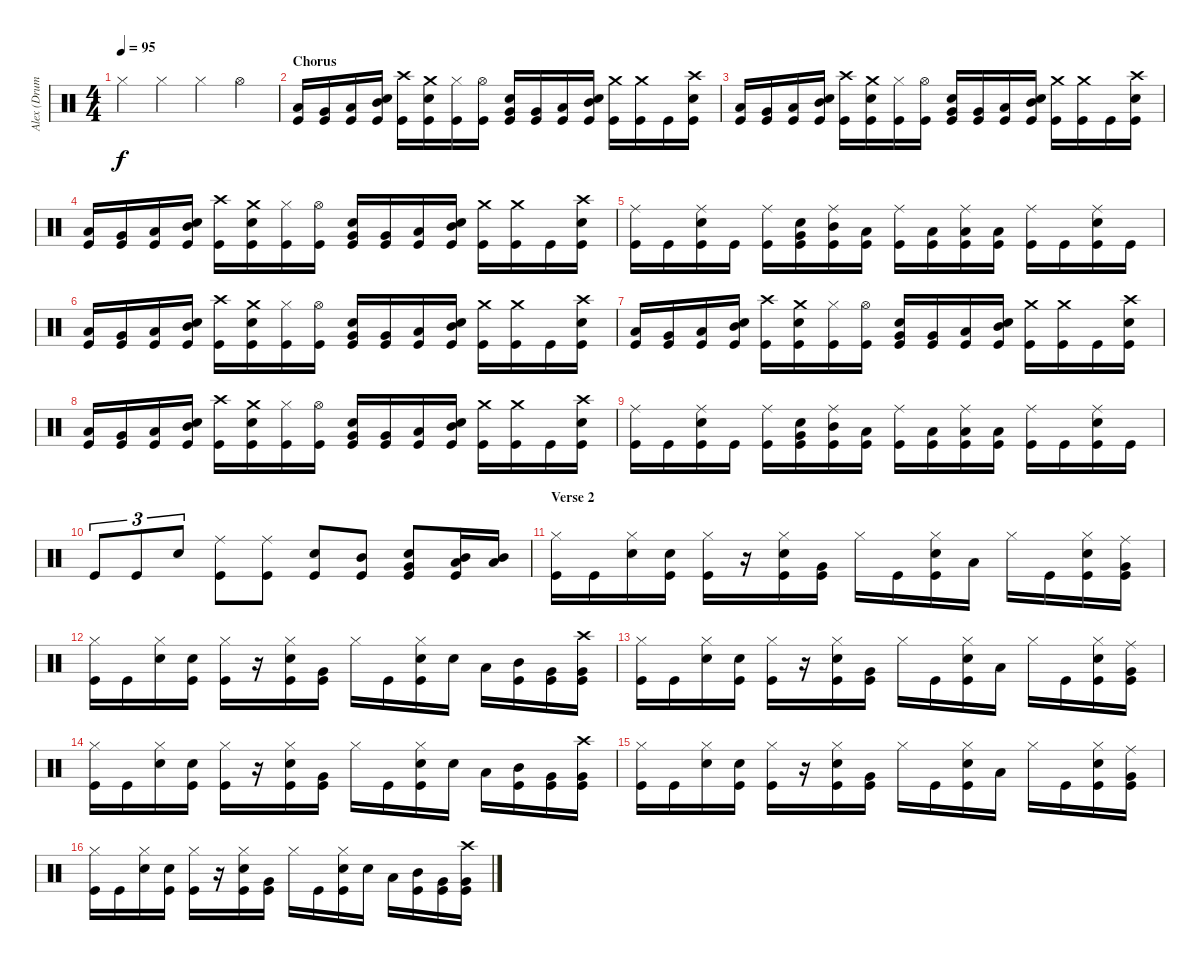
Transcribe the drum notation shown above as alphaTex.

\track ("Alex (Drums)" "Alex (Drum") {instrument percussion}
\staff {score}
\articulation defaults
\ts (4 4)
\tempo 95
\clef neutral
\ks c "Hi-Hat (closed)".4{dy f} "Hi-Hat (closed)".4 "Hi-Hat (closed)".4 "Hi-Hat (open)".4
|
\section ("" "Chorus")
("Low Tom (hit)" "Kick (hit)").16 ("Very Low Tom (hit)" "Kick (hit)").16 ("Low Floor Tom (hit)" "Kick (hit)").16 ("Mid Tom (hit)" "Electric Snare (hit)" "Kick (hit)").16 ("Crash high (hit)" "Kick (hit)").16 ("Crash medium (hit)" "Electric Snare (hit)" "Kick (hit)").16 ("Hi-Hat (closed)" "Kick (hit)").16 ("Hi-Hat (open)" "Kick (hit)").16 ("Very Low Tom (hit)" "Electric Snare (hit)" "Kick (hit)").16 ("Very Low Tom (hit)" "Kick (hit)").16 ("Low Tom (hit)" "Kick (hit)").16 ("Mid Tom (hit)" "Electric Snare (hit)" "Kick (hit)").16 ("Crash medium (hit)" "Kick (hit)").16 ("Crash medium (hit)" "Kick (hit)").16 "Kick (hit)".16 ("Crash high (hit)" "Electric Snare (hit)" "Kick (hit)").16 |
("Low Tom (hit)" "Kick (hit)").16 ("Very Low Tom (hit)" "Kick (hit)").16 ("Low Floor Tom (hit)" "Kick (hit)").16 ("Mid Tom (hit)" "Electric Snare (hit)" "Kick (hit)").16 ("Crash high (hit)" "Kick (hit)").16 ("Crash medium (hit)" "Electric Snare (hit)" "Kick (hit)").16 ("Hi-Hat (closed)" "Kick (hit)").16 ("Hi-Hat (open)" "Kick (hit)").16 ("Very Low Tom (hit)" "Electric Snare (hit)" "Kick (hit)").16 ("Very Low Tom (hit)" "Kick (hit)").16 ("Low Tom (hit)" "Kick (hit)").16 ("Mid Tom (hit)" "Electric Snare (hit)" "Kick (hit)").16 ("Crash medium (hit)" "Kick (hit)").16 ("Crash medium (hit)" "Kick (hit)").16 "Kick (hit)".16 ("Crash high (hit)" "Electric Snare (hit)" "Kick (hit)").16 |
("Low Tom (hit)" "Kick (hit)").16 ("Very Low Tom (hit)" "Kick (hit)").16 ("Low Floor Tom (hit)" "Kick (hit)").16 ("Mid Tom (hit)" "Electric Snare (hit)" "Kick (hit)").16 ("Crash high (hit)" "Kick (hit)").16 ("Crash medium (hit)" "Electric Snare (hit)" "Kick (hit)").16 ("Hi-Hat (closed)" "Kick (hit)").16 ("Hi-Hat (open)" "Kick (hit)").16 ("Very Low Tom (hit)" "Electric Snare (hit)" "Kick (hit)").16 ("Very Low Tom (hit)" "Kick (hit)").16 ("Low Tom (hit)" "Kick (hit)").16 ("Mid Tom (hit)" "Electric Snare (hit)" "Kick (hit)").16 ("Crash medium (hit)" "Kick (hit)").16 ("Crash medium (hit)" "Kick (hit)").16 "Kick (hit)".16 ("Crash high (hit)" "Electric Snare (hit)" "Kick (hit)").16 |
("Ride (middle)" "Kick (hit)").16 "Kick (hit)".16 ("Ride (middle)" "Electric Snare (hit)" "Kick (hit)").16 "Kick (hit)".16 ("Ride (middle)" "Kick (hit)").16 ("Very Low Tom (hit)" "Electric Snare (hit)" "Kick (hit)").16 ("Ride (middle)" "Mid Tom (hit)" "Kick (hit)").16 ("Low Tom (hit)" "Kick (hit)").16 ("Ride (middle)" "Kick (hit)").16 ("Low Tom (hit)" "Kick (hit)").16 ("Ride (middle)" "Low Tom (hit)" "Kick (hit)").16 ("Low Tom (hit)" "Kick (hit)").16 ("Ride (middle)" "Kick (hit)").16 "Kick (hit)".16 ("Ride (middle)" "Electric Snare (hit)" "Kick (hit)").16 "Kick (hit)".16 |
("Low Tom (hit)" "Kick (hit)").16 ("Very Low Tom (hit)" "Kick (hit)").16 ("Low Floor Tom (hit)" "Kick (hit)").16 ("Mid Tom (hit)" "Electric Snare (hit)" "Kick (hit)").16 ("Crash high (hit)" "Kick (hit)").16 ("Crash medium (hit)" "Electric Snare (hit)" "Kick (hit)").16 ("Hi-Hat (closed)" "Kick (hit)").16 ("Hi-Hat (open)" "Kick (hit)").16 ("Very Low Tom (hit)" "Electric Snare (hit)" "Kick (hit)").16 ("Very Low Tom (hit)" "Kick (hit)").16 ("Low Tom (hit)" "Kick (hit)").16 ("Mid Tom (hit)" "Electric Snare (hit)" "Kick (hit)").16 ("Crash medium (hit)" "Kick (hit)").16 ("Crash medium (hit)" "Kick (hit)").16 "Kick (hit)".16 ("Crash high (hit)" "Electric Snare (hit)" "Kick (hit)").16 |
("Low Tom (hit)" "Kick (hit)").16 ("Very Low Tom (hit)" "Kick (hit)").16 ("Low Floor Tom (hit)" "Kick (hit)").16 ("Mid Tom (hit)" "Electric Snare (hit)" "Kick (hit)").16 ("Crash high (hit)" "Kick (hit)").16 ("Crash medium (hit)" "Electric Snare (hit)" "Kick (hit)").16 ("Hi-Hat (closed)" "Kick (hit)").16 ("Hi-Hat (open)" "Kick (hit)").16 ("Very Low Tom (hit)" "Electric Snare (hit)" "Kick (hit)").16 ("Very Low Tom (hit)" "Kick (hit)").16 ("Low Tom (hit)" "Kick (hit)").16 ("Mid Tom (hit)" "Electric Snare (hit)" "Kick (hit)").16 ("Crash medium (hit)" "Kick (hit)").16 ("Crash medium (hit)" "Kick (hit)").16 "Kick (hit)".16 ("Crash high (hit)" "Electric Snare (hit)" "Kick (hit)").16 |
("Low Tom (hit)" "Kick (hit)").16 ("Very Low Tom (hit)" "Kick (hit)").16 ("Low Floor Tom (hit)" "Kick (hit)").16 ("Mid Tom (hit)" "Electric Snare (hit)" "Kick (hit)").16 ("Crash high (hit)" "Kick (hit)").16 ("Crash medium (hit)" "Electric Snare (hit)" "Kick (hit)").16 ("Hi-Hat (closed)" "Kick (hit)").16 ("Hi-Hat (open)" "Kick (hit)").16 ("Very Low Tom (hit)" "Electric Snare (hit)" "Kick (hit)").16 ("Very Low Tom (hit)" "Kick (hit)").16 ("Low Tom (hit)" "Kick (hit)").16 ("Mid Tom (hit)" "Electric Snare (hit)" "Kick (hit)").16 ("Crash medium (hit)" "Kick (hit)").16 ("Crash medium (hit)" "Kick (hit)").16 "Kick (hit)".16 ("Crash high (hit)" "Electric Snare (hit)" "Kick (hit)").16 |
("Ride (middle)" "Kick (hit)").16 "Kick (hit)".16 ("Ride (middle)" "Electric Snare (hit)" "Kick (hit)").16 "Kick (hit)".16 ("Ride (middle)" "Kick (hit)").16 ("Very Low Tom (hit)" "Electric Snare (hit)" "Kick (hit)").16 ("Ride (middle)" "Mid Tom (hit)" "Kick (hit)").16 ("Low Tom (hit)" "Kick (hit)").16 ("Ride (middle)" "Kick (hit)").16 ("Low Tom (hit)" "Kick (hit)").16 ("Ride (middle)" "Low Tom (hit)" "Kick (hit)").16 ("Low Tom (hit)" "Kick (hit)").16 ("Ride (middle)" "Kick (hit)").16 "Kick (hit)".16 ("Ride (middle)" "Electric Snare (hit)" "Kick (hit)").16 "Kick (hit)".16 |
"Kick (hit)".8{tu (3 2)} "Kick (hit)".8{tu (3 2)} "Electric Snare (hit)".8{tu (3 2)} ("Ride (middle)" "Kick (hit)").8 ("Ride (middle)" "Kick (hit)").8 ("Electric Snare (hit)" "Kick (hit)").8 ("Mid Tom (hit)" "Kick (hit)").8 ("Very Low Tom (hit)" "Electric Snare (hit)" "Kick (hit)").8 ("Low Floor Tom (hit)" "Mid Tom (hit)" "Kick (hit)").16 ("Low Floor Tom (hit)" "Mid Tom (hit)").16 |
\section ("" "Verse 2")
("Hi-Hat (closed)" "Kick (hit)").16 "Kick (hit)".16 ("Hi-Hat (closed)" "Electric Snare (hit)").16 ("Electric Snare (hit)" "Kick (hit)").16 ("Hi-Hat (closed)" "Kick (hit)").16 r.16 ("Hi-Hat (closed)" "Electric Snare (hit)" "Kick (hit)").16 ("Very Low Tom (hit)" "Kick (hit)").16 "Hi-Hat (closed)".16 "Kick (hit)".16 ("Hi-Hat (closed)" "Electric Snare (hit)" "Kick (hit)").16 "Low Tom (hit)".16 "Hi-Hat (closed)".16 "Kick (hit)".16 ("Hi-Hat (closed)" "Electric Snare (hit)" "Kick (hit)").16 ("Ride (middle)" "Very Low Tom (hit)" "Kick (hit)").16 |
("Hi-Hat (closed)" "Kick (hit)").16 "Kick (hit)".16 ("Hi-Hat (closed)" "Electric Snare (hit)").16 ("Electric Snare (hit)" "Kick (hit)").16 ("Hi-Hat (closed)" "Kick (hit)").16 r.16 ("Hi-Hat (closed)" "Electric Snare (hit)" "Kick (hit)").16 ("Very Low Tom (hit)" "Kick (hit)").16 "Hi-Hat (closed)".16 "Kick (hit)".16 ("Hi-Hat (closed)" "Electric Snare (hit)" "Kick (hit)").16 "Electric Snare (hit)".16 "Low Tom (hit)".16 ("Mid Tom (hit)" "Kick (hit)").16 ("Very Low Tom (hit)" "Kick (hit)").16 ("Crash high (hit)" "Very Low Tom (hit)" "Kick (hit)").16 |
("Hi-Hat (closed)" "Kick (hit)").16 "Kick (hit)".16 ("Hi-Hat (closed)" "Electric Snare (hit)").16 ("Electric Snare (hit)" "Kick (hit)").16 ("Hi-Hat (closed)" "Kick (hit)").16 r.16 ("Hi-Hat (closed)" "Electric Snare (hit)" "Kick (hit)").16 ("Very Low Tom (hit)" "Kick (hit)").16 "Hi-Hat (closed)".16 "Kick (hit)".16 ("Hi-Hat (closed)" "Electric Snare (hit)" "Kick (hit)").16 "Low Tom (hit)".16 "Hi-Hat (closed)".16 "Kick (hit)".16 ("Hi-Hat (closed)" "Electric Snare (hit)" "Kick (hit)").16 ("Ride (middle)" "Very Low Tom (hit)" "Kick (hit)").16 |
("Hi-Hat (closed)" "Kick (hit)").16 "Kick (hit)".16 ("Hi-Hat (closed)" "Electric Snare (hit)").16 ("Electric Snare (hit)" "Kick (hit)").16 ("Hi-Hat (closed)" "Kick (hit)").16 r.16 ("Hi-Hat (closed)" "Electric Snare (hit)" "Kick (hit)").16 ("Very Low Tom (hit)" "Kick (hit)").16 "Hi-Hat (closed)".16 "Kick (hit)".16 ("Hi-Hat (closed)" "Electric Snare (hit)" "Kick (hit)").16 "Electric Snare (hit)".16 "Low Tom (hit)".16 ("Mid Tom (hit)" "Kick (hit)").16 ("Very Low Tom (hit)" "Kick (hit)").16 ("Crash high (hit)" "Very Low Tom (hit)" "Kick (hit)").16 |
("Hi-Hat (closed)" "Kick (hit)").16 "Kick (hit)".16 ("Hi-Hat (closed)" "Electric Snare (hit)").16 ("Electric Snare (hit)" "Kick (hit)").16 ("Hi-Hat (closed)" "Kick (hit)").16 r.16 ("Hi-Hat (closed)" "Electric Snare (hit)" "Kick (hit)").16 ("Very Low Tom (hit)" "Kick (hit)").16 "Hi-Hat (closed)".16 "Kick (hit)".16 ("Hi-Hat (closed)" "Electric Snare (hit)" "Kick (hit)").16 "Low Tom (hit)".16 "Hi-Hat (closed)".16 "Kick (hit)".16 ("Hi-Hat (closed)" "Electric Snare (hit)" "Kick (hit)").16 ("Ride (middle)" "Very Low Tom (hit)" "Kick (hit)").16 |
("Hi-Hat (closed)" "Kick (hit)").16 "Kick (hit)".16 ("Hi-Hat (closed)" "Electric Snare (hit)").16 ("Electric Snare (hit)" "Kick (hit)").16 ("Hi-Hat (closed)" "Kick (hit)").16 r.16 ("Hi-Hat (closed)" "Electric Snare (hit)" "Kick (hit)").16 ("Very Low Tom (hit)" "Kick (hit)").16 "Hi-Hat (closed)".16 "Kick (hit)".16 ("Hi-Hat (closed)" "Electric Snare (hit)" "Kick (hit)").16 "Electric Snare (hit)".16 "Low Tom (hit)".16 ("Mid Tom (hit)" "Kick (hit)").16 ("Very Low Tom (hit)" "Kick (hit)").16 ("Crash high (hit)" "Very Low Tom (hit)" "Kick (hit)").16
